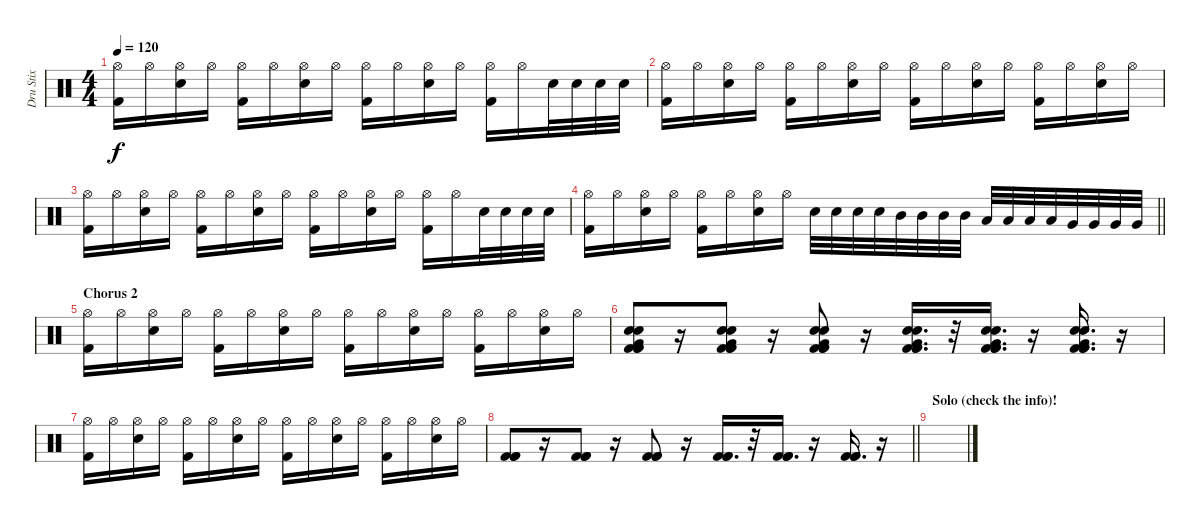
\track ("Dru Stix " "Dru Stix ") {instrument percussion}
\staff {score}
\articulation defaults
\ts (4 4)
\tempo 120
\clef neutral
\ks c
("Hi-Hat (open)" "Kick (hit) 2").16{dy f} "Hi-Hat (open)".16 ("Hi-Hat (open)" "Electric Snare (hit)").16 "Hi-Hat (open)".16 ("Hi-Hat (open)" "Kick (hit) 2").16 "Hi-Hat (open)".16 ("Hi-Hat (open)" "Electric Snare (hit)").16 "Hi-Hat (open)".16 ("Hi-Hat (open)" "Kick (hit) 2").16 "Hi-Hat (open)".16 ("Hi-Hat (open)" "Electric Snare (hit)").16 "Hi-Hat (open)".16 ("Hi-Hat (open)" "Kick (hit) 2").16 "Hi-Hat (open)".16 "Electric Snare (hit)".32 "Electric Snare (hit)".32 "Electric Snare (hit)".32 "Electric Snare (hit)".32 |
("Hi-Hat (open)" "Kick (hit) 2").16 "Hi-Hat (open)".16 ("Hi-Hat (open)" "Electric Snare (hit)").16 "Hi-Hat (open)".16 ("Hi-Hat (open)" "Kick (hit) 2").16 "Hi-Hat (open)".16 ("Hi-Hat (open)" "Electric Snare (hit)").16 "Hi-Hat (open)".16 ("Hi-Hat (open)" "Kick (hit) 2").16 "Hi-Hat (open)".16 ("Hi-Hat (open)" "Electric Snare (hit)").16 "Hi-Hat (open)".16 ("Hi-Hat (open)" "Kick (hit) 2").16 "Hi-Hat (open)".16 ("Hi-Hat (open)" "Electric Snare (hit)").16 "Hi-Hat (open)".16 |
("Hi-Hat (open)" "Kick (hit) 2").16 "Hi-Hat (open)".16 ("Hi-Hat (open)" "Electric Snare (hit)").16 "Hi-Hat (open)".16 ("Hi-Hat (open)" "Kick (hit) 2").16 "Hi-Hat (open)".16 ("Hi-Hat (open)" "Electric Snare (hit)").16 "Hi-Hat (open)".16 ("Hi-Hat (open)" "Kick (hit) 2").16 "Hi-Hat (open)".16 ("Hi-Hat (open)" "Electric Snare (hit)").16 "Hi-Hat (open)".16 ("Hi-Hat (open)" "Kick (hit) 2").16 "Hi-Hat (open)".16 "Electric Snare (hit)".32 "Electric Snare (hit)".32 "Electric Snare (hit)".32 "Electric Snare (hit)".32 |
\barLineRight lightlight
("Hi-Hat (open)" "Kick (hit) 2").16 "Hi-Hat (open)".16 ("Hi-Hat (open)" "Electric Snare (hit)").16 "Hi-Hat (open)".16 ("Hi-Hat (open)" "Kick (hit) 2").16 "Hi-Hat (open)".16 ("Hi-Hat (open)" "Electric Snare (hit)").16 "Hi-Hat (open)".16 "Electric Snare (hit)".32 "Electric Snare (hit)".32 "Electric Snare (hit)".32 "Electric Snare (hit)".32 "Mid Tom (hit)".32 "Mid Tom (hit)".32 "Mid Tom (hit)".32 "Mid Tom (hit)".32 "Low Tom (hit)".32 "Low Tom (hit)".32 "Low Tom (hit)".32 "Low Tom (hit)".32 "Very Low Tom (hit)".32 "Very Low Tom (hit)".32 "Very Low Tom (hit)".32 "Very Low Tom (hit)".32 |
\section ("" "Chorus 2")
("Hi-Hat (open)" "Kick (hit) 2").16 "Hi-Hat (open)".16 ("Hi-Hat (open)" "Electric Snare (hit)").16 "Hi-Hat (open)".16 ("Hi-Hat (open)" "Kick (hit) 2").16 "Hi-Hat (open)".16 ("Hi-Hat (open)" "Electric Snare (hit)").16 "Hi-Hat (open)".16 ("Hi-Hat (open)" "Kick (hit) 2").16 "Hi-Hat (open)".16 ("Hi-Hat (open)" "Electric Snare (hit)").16 "Hi-Hat (open)".16 ("Hi-Hat (open)" "Kick (hit) 2").16 "Hi-Hat (open)".16 ("Hi-Hat (open)" "Electric Snare (hit)").16 "Hi-Hat (open)".16 |
("Very Low Tom (hit)" "Electric Snare (hit)" "Electric Snare (hit)" "Kick (hit) 2" "Kick (hit) 2" "Kick (hit) 2").8 r.16 ("Very Low Tom (hit)" "Electric Snare (hit)" "Electric Snare (hit)" "Kick (hit) 2" "Kick (hit) 2" "Kick (hit) 2").8 r.16 ("Very Low Tom (hit)" "Electric Snare (hit)" "Electric Snare (hit)" "Kick (hit) 2" "Kick (hit) 2" "Kick (hit) 2").8 r.16 ("Very Low Tom (hit)" "Electric Snare (hit)" "Electric Snare (hit)" "Kick (hit) 2" "Kick (hit) 2" "Kick (hit) 2").16{d} r.32 ("Very Low Tom (hit)" "Electric Snare (hit)" "Electric Snare (hit)" "Kick (hit) 2" "Kick (hit) 2" "Kick (hit) 2").16{d} r.16 ("Very Low Tom (hit)" "Electric Snare (hit)" "Electric Snare (hit)" "Kick (hit) 2" "Kick (hit) 2" "Kick (hit) 2").16{d} r.16 |
("Hi-Hat (open)" "Kick (hit) 2").16 "Hi-Hat (open)".16 ("Hi-Hat (open)" "Electric Snare (hit)").16 "Hi-Hat (open)".16 ("Hi-Hat (open)" "Kick (hit) 2").16 "Hi-Hat (open)".16 ("Hi-Hat (open)" "Electric Snare (hit)").16 "Hi-Hat (open)".16 ("Hi-Hat (open)" "Kick (hit) 2").16 "Hi-Hat (open)".16 ("Hi-Hat (open)" "Electric Snare (hit)").16 "Hi-Hat (open)".16 ("Hi-Hat (open)" "Kick (hit) 2").16 "Hi-Hat (open)".16 ("Hi-Hat (open)" "Electric Snare (hit)").16 "Hi-Hat (open)".16 |
\barLineRight lightlight
("Kick (hit) 2" "Kick (hit) 2" "Kick (hit) 2").8 r.16 ("Kick (hit) 2" "Kick (hit) 2" "Kick (hit) 2").8 r.16 ("Kick (hit) 2" "Kick (hit) 2" "Kick (hit) 2").8 r.16 ("Kick (hit) 2" "Kick (hit) 2" "Kick (hit) 2").16{d} r.32 ("Kick (hit) 2" "Kick (hit) 2" "Kick (hit) 2").16{d} r.16 ("Kick (hit) 2" "Kick (hit) 2" "Kick (hit) 2").16{d} r.16 |
\section ("" "Solo (check the info)!")
